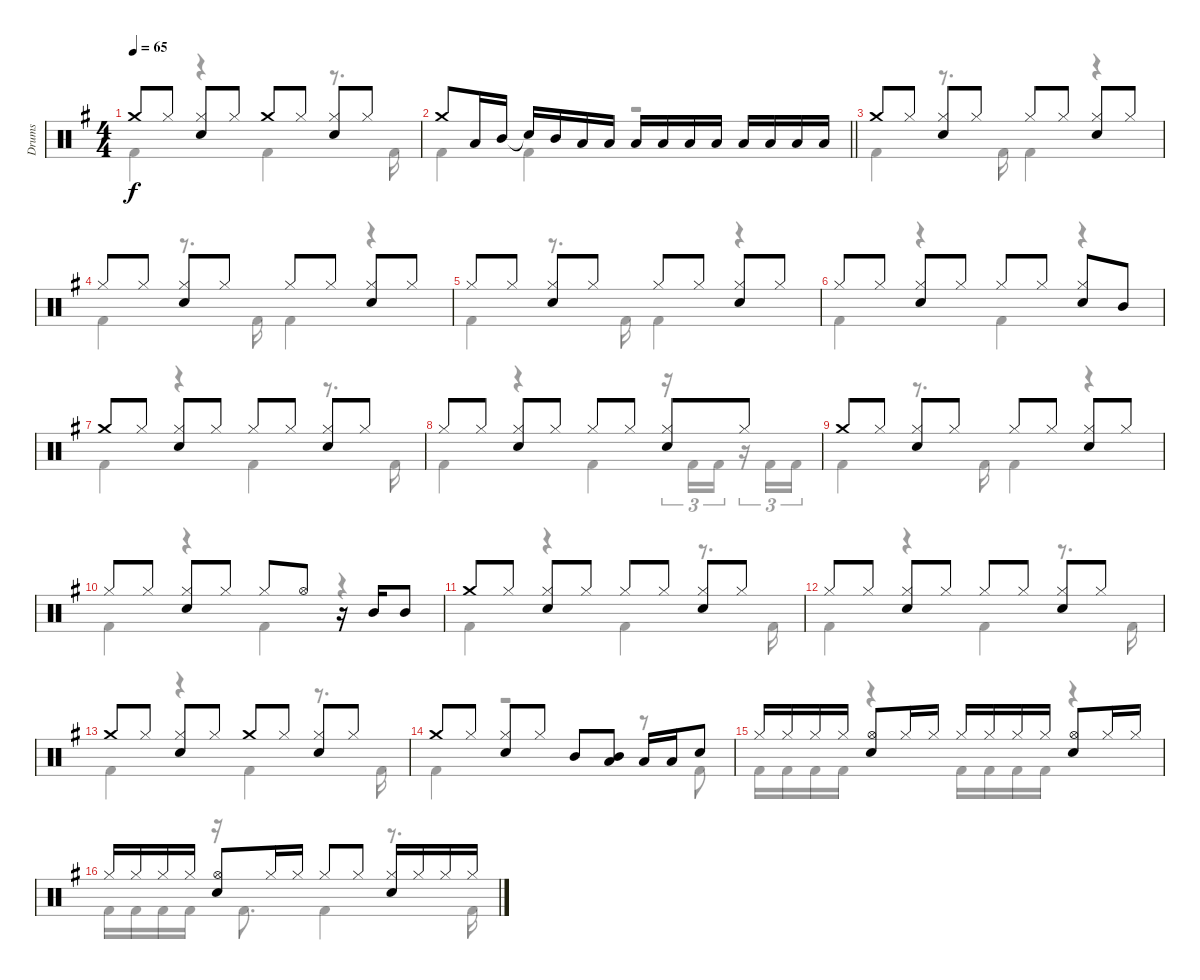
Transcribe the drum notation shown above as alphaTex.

\track ("Drums" "Drums") {instrument percussion}
\staff {score}
\articulation defaults
\voice
\ts (4 4)
\tempo 65
\clef neutral
\ks g "Crash medium (hit)".8{dy f} "Hi-Hat (closed)".8
("Hi-Hat (closed)" "Snare (hit) 2").8 "Hi-Hat (closed)".8 "Crash medium (hit)".8 "Hi-Hat (closed)".8 ("Hi-Hat (closed)" "Snare (hit) 2").8 "Hi-Hat (closed)".8 |
\barLineRight lightlight "Crash medium (hit)".8 "Low Tom (hit)".16 "Mid Tom (hit)".16 "Snare (hit)"{t}.16 "Mid Tom (hit)".16 "Low Tom (hit)".16 "Low Tom (hit)".16 "Low Tom (hit)".16 "Low Tom (hit)".16 "Low Tom (hit)".16 "Low Tom (hit)".16 "Low Tom (hit)".16 "Low Tom (hit)".16 "Low Tom (hit)".16 "Low Tom (hit)".16
|
"Crash medium (hit)".8 "Hi-Hat (closed)".8 ("Hi-Hat (closed)" "Snare (hit) 2").8 "Hi-Hat (closed)".8 "Hi-Hat (closed)".8 "Hi-Hat (closed)".8 ("Hi-Hat (closed)" "Snare (hit) 2").8 "Hi-Hat (closed)".8 |
"Hi-Hat (closed)".8 "Hi-Hat (closed)".8 ("Hi-Hat (closed)" "Snare (hit) 2").8 "Hi-Hat (closed)".8 "Hi-Hat (closed)".8 "Hi-Hat (closed)".8 ("Hi-Hat (closed)" "Snare (hit) 2").8 "Hi-Hat (closed)".8 |
"Hi-Hat (closed)".8 "Hi-Hat (closed)".8 ("Hi-Hat (closed)" "Snare (hit) 2").8 "Hi-Hat (closed)".8 "Hi-Hat (closed)".8 "Hi-Hat (closed)".8 ("Hi-Hat (closed)" "Snare (hit) 2").8 "Hi-Hat (closed)".8 |
"Hi-Hat (closed)".8 "Hi-Hat (closed)".8 ("Hi-Hat (closed)" "Snare (hit) 2").8 "Hi-Hat (closed)".8 "Hi-Hat (closed)".8 "Hi-Hat (closed)".8 ("Hi-Hat (closed)" "Snare (hit) 2").8 "Mid Tom (hit)".8 |
"Crash medium (hit)".8 "Hi-Hat (closed)".8 ("Hi-Hat (closed)" "Snare (hit) 2").8 "Hi-Hat (closed)".8 "Hi-Hat (closed)".8 "Hi-Hat (closed)".8 ("Hi-Hat (closed)" "Snare (hit) 2").8 "Hi-Hat (closed)".8 |
"Hi-Hat (closed)".8 "Hi-Hat (closed)".8 ("Hi-Hat (closed)" "Snare (hit) 2").8 "Hi-Hat (closed)".8 "Hi-Hat (closed)".8 "Hi-Hat (closed)".8 ("Hi-Hat (closed)" "Snare (hit) 2").8 "Hi-Hat (closed)".8 |
"Crash medium (hit)".8 "Hi-Hat (closed)".8 ("Hi-Hat (closed)" "Snare (hit) 2").8 "Hi-Hat (closed)".8 "Hi-Hat (closed)".8 "Hi-Hat (closed)".8 ("Hi-Hat (closed)" "Snare (hit) 2").8 "Hi-Hat (closed)".8 |
"Hi-Hat (closed)".8 "Hi-Hat (closed)".8 ("Hi-Hat (closed)" "Snare (hit) 2").8 "Hi-Hat (closed)".8 "Hi-Hat (closed)".8 "Hi-Hat (open)".8 r.16 "Mid Tom (hit)".16 "Mid Tom (hit)".8 |
"Crash medium (hit)".8 "Hi-Hat (closed)".8 ("Hi-Hat (closed)" "Snare (hit) 2").8 "Hi-Hat (closed)".8 "Hi-Hat (closed)".8 "Hi-Hat (closed)".8 ("Hi-Hat (closed)" "Snare (hit) 2").8 "Hi-Hat (closed)".8 |
"Hi-Hat (closed)".8 "Hi-Hat (closed)".8 ("Hi-Hat (closed)" "Snare (hit) 2").8 "Hi-Hat (closed)".8 "Hi-Hat (closed)".8 "Hi-Hat (closed)".8 ("Hi-Hat (closed)" "Snare (hit) 2").8 "Hi-Hat (closed)".8 |
"Crash medium (hit)".8 "Hi-Hat (closed)".8 ("Hi-Hat (closed)" "Snare (hit) 2").8 "Hi-Hat (closed)".8 "Crash medium (hit)".8 "Hi-Hat (closed)".8 ("Hi-Hat (closed)" "Snare (hit) 2").8 "Hi-Hat (closed)".8 |
"Crash medium (hit)".8 "Hi-Hat (closed)".8 ("Hi-Hat (closed)" "Snare (hit) 2").8 "Hi-Hat (closed)".8 "Mid Tom (hit)".8 ("Mid Tom (hit)" "Low Tom (hit)").8 "Low Tom (hit)".16 "Low Tom (hit)".16 "Snare (hit)".8 |
"Hi-Hat (closed)".16 "Hi-Hat (closed)".16 "Hi-Hat (closed)".16 "Hi-Hat (closed)".16 ("Hi-Hat (open)" "Snare (hit) 2").8 "Hi-Hat (closed)".16 "Hi-Hat (closed)".16 "Hi-Hat (closed)".16 "Hi-Hat (closed)".16 "Hi-Hat (closed)".16 "Hi-Hat (closed)".16 ("Hi-Hat (open)" "Snare (hit) 2").8 "Hi-Hat (closed)".16 "Hi-Hat (closed)".16 |
"Hi-Hat (closed)".16 "Hi-Hat (closed)".16 "Hi-Hat (closed)".16 "Hi-Hat (closed)".16 ("Hi-Hat (open)" "Snare (hit) 2").8 "Hi-Hat (closed)".16 "Hi-Hat (closed)".16 "Hi-Hat (closed)".8 "Hi-Hat (closed)".8 ("Hi-Hat (closed)" "Snare (hit) 2").16 "Hi-Hat (closed)".16 "Hi-Hat (closed)".16 "Hi-Hat (closed)".16
\voice
\clef neutral
\ottava regular
\simile none
\ks g "Kick (hit) 2".4{dy f}
r.4 "Kick (hit) 2".4 r.8{d} "Kick (hit) 2".16 |
\barLineRight lightlight "Kick (hit) 2".4 "Kick (hit) 2".4
r.2 |
"Kick (hit) 2".4 r.8{d} "Kick (hit) 2".16 "Kick (hit) 2".4 r.4 |
"Kick (hit) 2".4 r.8{d} "Kick (hit) 2".16 "Kick (hit) 2".4 r.4 |
"Kick (hit) 2".4 r.8{d} "Kick (hit) 2".16 "Kick (hit) 2".4 r.4 |
"Kick (hit) 2".4 r.4 "Kick (hit) 2".4 r.4 |
"Kick (hit) 2".4 r.4 "Kick (hit) 2".4 r.8{d} "Kick (hit) 2".16 |
"Kick (hit) 2".4 r.4 "Kick (hit) 2".4 r.16{tu (3 2)} "Kick (hit) 2".16{tu (3 2)} "Kick (hit) 2".16{tu (3 2)} r.16{tu (3 2)} "Kick (hit) 2".16{tu (3 2)} "Kick (hit) 2".16{tu (3 2)} |
"Kick (hit) 2".4 r.8{d} "Kick (hit) 2".16 "Kick (hit) 2".4 r.4 |
"Kick (hit) 2".4 r.4 "Kick (hit) 2".4 r.4 |
"Kick (hit) 2".4 r.4 "Kick (hit) 2".4 r.8{d} "Kick (hit) 2".16 |
"Kick (hit) 2".4 r.4 "Kick (hit) 2".4 r.8{d} "Kick (hit) 2".16 |
"Kick (hit) 2".4 r.4 "Kick (hit) 2".4 r.8{d} "Kick (hit) 2".16 |
"Kick (hit) 2".4 r.2 r.8 "Kick (hit) 2".8 |
"Kick (hit) 2".16 "Kick (hit) 2".16 "Kick (hit) 2".16 "Kick (hit) 2".16 r.4 "Kick (hit) 2".16 "Kick (hit) 2".16 "Kick (hit) 2".16 "Kick (hit) 2".16 r.4 |
"Kick (hit) 2".16 "Kick (hit) 2".16 "Kick (hit) 2".16 "Kick (hit) 2".16 r.16 "Kick (hit) 2".8{d} "Kick (hit) 2".4 r.8{d} "Kick (hit) 2".16
